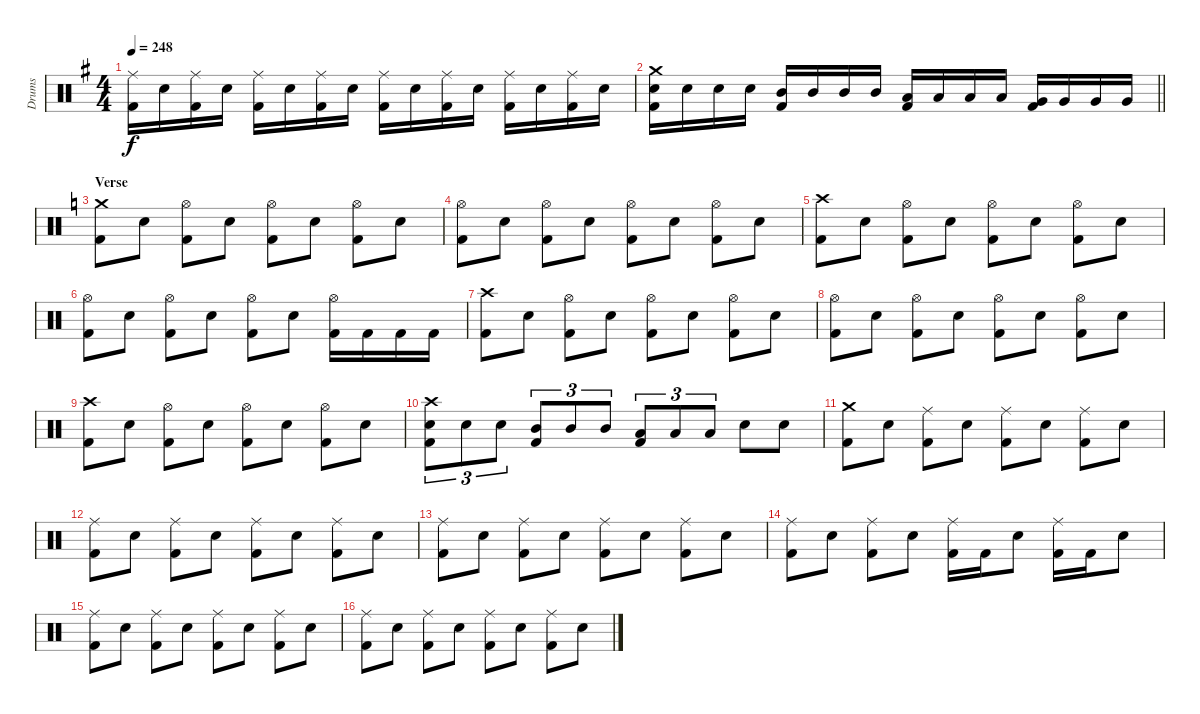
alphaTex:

\track ("Drums" "Drums") {instrument percussion}
\staff {score}
\articulation defaults
\ts (4 4)
\tempo 248
\clef neutral
\ks g
("Ride (middle)" "Kick (hit) 2").16{dy f} "Snare (hit) 2".16 ("Ride (middle)" "Kick (hit) 2").16 "Snare (hit) 2".16 ("Ride (middle)" "Kick (hit) 2").16 "Snare (hit) 2".16 ("Ride (middle)" "Kick (hit) 2").16 "Snare (hit) 2".16 ("Ride (middle)" "Kick (hit) 2").16 "Snare (hit) 2".16 ("Ride (middle)" "Kick (hit) 2").16 "Snare (hit) 2".16 ("Ride (middle)" "Kick (hit) 2").16 "Snare (hit) 2".16 ("Ride (middle)" "Kick (hit) 2").16 "Snare (hit) 2".16 |
\barLineRight lightlight
("Crash medium (hit)" "Snare (hit) 2" "Kick (hit) 2").16 "Snare (hit) 2".16 "Snare (hit) 2".16 "Snare (hit) 2".16 ("Mid Tom (hit)" "Kick (hit) 2").16 "Mid Tom (hit)".16 "Mid Tom (hit)".16 "Mid Tom (hit)".16 ("Low Tom (hit)" "Kick (hit) 2").16 "Low Tom (hit)".16 "Low Tom (hit)".16 "Low Tom (hit)".16 ("Very Low Tom (hit)" "Kick (hit) 2").16 "Very Low Tom (hit)".16 "Very Low Tom (hit)".16 "Very Low Tom (hit)".16 |
\section ("" "Verse")
\ks c
("Crash medium (hit)" "Kick (hit) 2").8 "Snare (hit) 2".8 ("Hi-Hat (open)" "Kick (hit) 2").8 "Snare (hit) 2".8 ("Hi-Hat (open)" "Kick (hit) 2").8 "Snare (hit) 2".8 ("Hi-Hat (open)" "Kick (hit) 2").8 "Snare (hit) 2".8 |
("Hi-Hat (open)" "Kick (hit) 2").8 "Snare (hit) 2".8 ("Hi-Hat (open)" "Kick (hit) 2").8 "Snare (hit) 2".8 ("Hi-Hat (open)" "Kick (hit) 2").8 "Snare (hit) 2".8 ("Hi-Hat (open)" "Kick (hit) 2").8 "Snare (hit) 2".8 |
("Crash high (hit)" "Kick (hit) 2").8 "Snare (hit) 2".8 ("Hi-Hat (open)" "Kick (hit) 2").8 "Snare (hit) 2".8 ("Hi-Hat (open)" "Kick (hit) 2").8 "Snare (hit) 2".8 ("Hi-Hat (open)" "Kick (hit) 2").8 "Snare (hit) 2".8 |
("Hi-Hat (open)" "Kick (hit) 2").8 "Snare (hit) 2".8 ("Hi-Hat (open)" "Kick (hit) 2").8 "Snare (hit) 2".8 ("Hi-Hat (open)" "Kick (hit) 2").8 "Snare (hit) 2".8 ("Hi-Hat (open)" "Kick (hit) 2").16 "Kick (hit) 2".16 "Kick (hit) 2".16 "Kick (hit) 2".16 |
("Crash high (hit)" "Kick (hit) 2").8 "Snare (hit) 2".8 ("Hi-Hat (open)" "Kick (hit) 2").8 "Snare (hit) 2".8 ("Hi-Hat (open)" "Kick (hit) 2").8 "Snare (hit) 2".8 ("Hi-Hat (open)" "Kick (hit) 2").8 "Snare (hit) 2".8 |
("Hi-Hat (open)" "Kick (hit) 2").8 "Snare (hit) 2".8 ("Hi-Hat (open)" "Kick (hit) 2").8 "Snare (hit) 2".8 ("Hi-Hat (open)" "Kick (hit) 2").8 "Snare (hit) 2".8 ("Hi-Hat (open)" "Kick (hit) 2").8 "Snare (hit) 2".8 |
("Crash high (hit)" "Kick (hit) 2").8 "Snare (hit) 2".8 ("Hi-Hat (open)" "Kick (hit) 2").8 "Snare (hit) 2".8 ("Hi-Hat (open)" "Kick (hit) 2").8 "Snare (hit) 2".8 ("Hi-Hat (open)" "Kick (hit) 2").8 "Snare (hit) 2".8 |
("Crash high (hit)" "Snare (hit) 2" "Kick (hit) 2").8{tu (3 2)} "Snare (hit) 2".8{tu (3 2)} "Snare (hit) 2".8{tu (3 2)} ("Mid Tom (hit)" "Kick (hit) 2").8{tu (3 2)} "Mid Tom (hit)".8{tu (3 2)} "Mid Tom (hit)".8{tu (3 2)} ("Low Tom (hit)" "Kick (hit) 2").8{tu (3 2)} "Low Tom (hit)".8{tu (3 2)} "Low Tom (hit)".8{tu (3 2)} "Snare (hit) 2".8 "Snare (hit) 2".8 |
("Crash medium (hit)" "Kick (hit) 2").8 "Snare (hit) 2".8 ("Ride (middle)" "Kick (hit) 2").8 "Snare (hit) 2".8 ("Ride (middle)" "Kick (hit) 2").8 "Snare (hit) 2".8 ("Ride (middle)" "Kick (hit) 2").8 "Snare (hit) 2".8 |
("Ride (middle)" "Kick (hit) 2").8 "Snare (hit) 2".8 ("Ride (middle)" "Kick (hit) 2").8 "Snare (hit) 2".8 ("Ride (middle)" "Kick (hit) 2").8 "Snare (hit) 2".8 ("Ride (middle)" "Kick (hit) 2").8 "Snare (hit) 2".8 |
("Ride (middle)" "Kick (hit) 2").8 "Snare (hit) 2".8 ("Ride (middle)" "Kick (hit) 2").8 "Snare (hit) 2".8 ("Ride (middle)" "Kick (hit) 2").8 "Snare (hit) 2".8 ("Ride (middle)" "Kick (hit) 2").8 "Snare (hit) 2".8 |
("Ride (middle)" "Kick (hit) 2").8 "Snare (hit) 2".8 ("Ride (middle)" "Kick (hit) 2").8 "Snare (hit) 2".8 ("Ride (middle)" "Kick (hit) 2").16 "Kick (hit) 2".16 "Snare (hit) 2".8 ("Ride (middle)" "Kick (hit) 2").16 "Kick (hit) 2".16 "Snare (hit) 2".8 |
("Ride (middle)" "Kick (hit) 2").8 "Snare (hit) 2".8 ("Ride (middle)" "Kick (hit) 2").8 "Snare (hit) 2".8 ("Ride (middle)" "Kick (hit) 2").8 "Snare (hit) 2".8 ("Ride (middle)" "Kick (hit) 2").8 "Snare (hit) 2".8 |
("Ride (middle)" "Kick (hit) 2").8 "Snare (hit) 2".8 ("Ride (middle)" "Kick (hit) 2").8 "Snare (hit) 2".8 ("Ride (middle)" "Kick (hit) 2").8 "Snare (hit) 2".8 ("Ride (middle)" "Kick (hit) 2").8 "Snare (hit) 2".8
